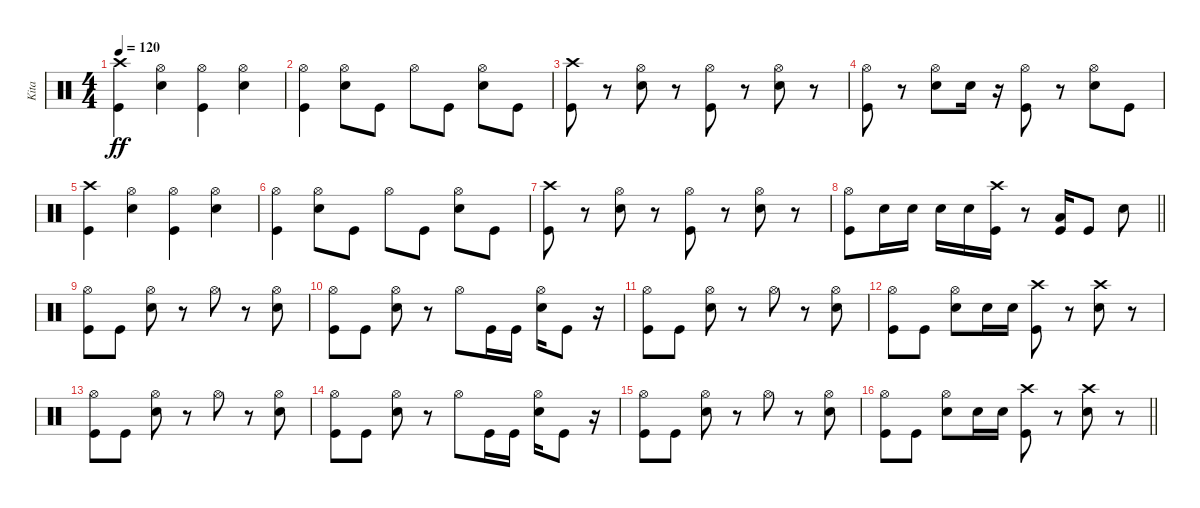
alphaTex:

\track ("Kita" "Kita") {instrument percussion}
\staff {score}
\articulation defaults
\ts (4 4)
\tempo 120
\clef neutral
\ks c
("Crash high (hit)" "Kick (hit)").4{dy ff} ("Hi-Hat (open)" "Snare (hit) 2").4 ("Hi-Hat (open)" "Kick (hit)").4 ("Hi-Hat (open)" "Snare (hit) 2").4 |
("Hi-Hat (open)" "Kick (hit)").4 ("Hi-Hat (open)" "Snare (hit) 2").8 "Kick (hit)".8 "Hi-Hat (open)".8 "Kick (hit)".8 ("Snare (hit) 2" "Hi-Hat (open)").8 "Kick (hit)".8 |
("Kick (hit)" "Crash high (hit)").8 r.8 ("Hi-Hat (open)" "Snare (hit) 2").8 r.8 ("Hi-Hat (open)" "Kick (hit)").8 r.8 ("Hi-Hat (open)" "Snare (hit) 2").8 r.8 |
("Hi-Hat (open)" "Kick (hit)").8 r.8 ("Hi-Hat (open)" "Snare (hit) 2").8 "Snare (hit) 2".16 r.16 ("Hi-Hat (open)" "Kick (hit)").8 r.8 ("Hi-Hat (open)" "Snare (hit) 2").8 "Kick (hit)".8 |
("Kick (hit)" "Crash high (hit)").4 ("Hi-Hat (open)" "Snare (hit) 2").4 ("Hi-Hat (open)" "Kick (hit)").4 ("Hi-Hat (open)" "Snare (hit) 2").4 |
("Hi-Hat (open)" "Kick (hit)").4 ("Hi-Hat (open)" "Snare (hit) 2").8 "Kick (hit)".8 "Hi-Hat (open)".8 "Kick (hit)".8 ("Snare (hit) 2" "Hi-Hat (open)").8 "Kick (hit)".8 |
("Kick (hit)" "Crash high (hit)").8 r.8 ("Hi-Hat (open)" "Snare (hit) 2").8 r.8 ("Hi-Hat (open)" "Kick (hit)").8 r.8 ("Hi-Hat (open)" "Snare (hit) 2").8 r.8 |
\barLineRight lightlight
("Hi-Hat (open)" "Kick (hit)").8 "Snare (hit) 2".16 "Snare (hit) 2".16 "Snare (hit) 2".16 "Snare (hit) 2".16 ("Crash high (hit)" "Kick (hit)").16 r.8 ("Kick (hit)" "Low Tom (hit)").16 "Kick (hit)".8 "Snare (hit) 2".8 |
("Hi-Hat (open)" "Kick (hit)").8 "Kick (hit)".8 ("Hi-Hat (open)" "Snare (hit) 2").8 r.8 "Hi-Hat (open)".8 r.8 ("Hi-Hat (open)" "Snare (hit) 2").8 |
("Hi-Hat (open)" "Kick (hit)").8 "Kick (hit)".8 ("Hi-Hat (open)" "Snare (hit) 2").8 r.8 "Hi-Hat (open)".8 "Kick (hit)".16 "Kick (hit)".16 ("Hi-Hat (open)" "Snare (hit) 2").16 "Kick (hit)".8 r.16 |
("Hi-Hat (open)" "Kick (hit)").8 "Kick (hit)".8 ("Hi-Hat (open)" "Snare (hit) 2").8 r.8 "Hi-Hat (open)".8 r.8 ("Hi-Hat (open)" "Snare (hit) 2").8 |
("Hi-Hat (open)" "Kick (hit)").8 "Kick (hit)".8 ("Hi-Hat (open)" "Snare (hit) 2").8 "Snare (hit) 2".16 "Snare (hit) 2".16 ("Crash high (hit)" "Kick (hit)").8 r.8 ("Snare (hit) 2" "Crash high (hit)").8 r.8 |
("Hi-Hat (open)" "Kick (hit)").8 "Kick (hit)".8 ("Hi-Hat (open)" "Snare (hit) 2").8 r.8 "Hi-Hat (open)".8 r.8 ("Hi-Hat (open)" "Snare (hit) 2").8 |
("Hi-Hat (open)" "Kick (hit)").8 "Kick (hit)".8 ("Hi-Hat (open)" "Snare (hit) 2").8 r.8 "Hi-Hat (open)".8 "Kick (hit)".16 "Kick (hit)".16 ("Hi-Hat (open)" "Snare (hit) 2").16 "Kick (hit)".8 r.16 |
("Hi-Hat (open)" "Kick (hit)").8 "Kick (hit)".8 ("Hi-Hat (open)" "Snare (hit) 2").8 r.8 "Hi-Hat (open)".8 r.8 ("Hi-Hat (open)" "Snare (hit) 2").8 |
\barLineRight lightlight
("Hi-Hat (open)" "Kick (hit)").8 "Kick (hit)".8 ("Hi-Hat (open)" "Snare (hit) 2").8 "Snare (hit) 2".16 "Snare (hit) 2".16 ("Crash high (hit)" "Kick (hit)").8 r.8 ("Snare (hit) 2" "Crash high (hit)").8 r.8
